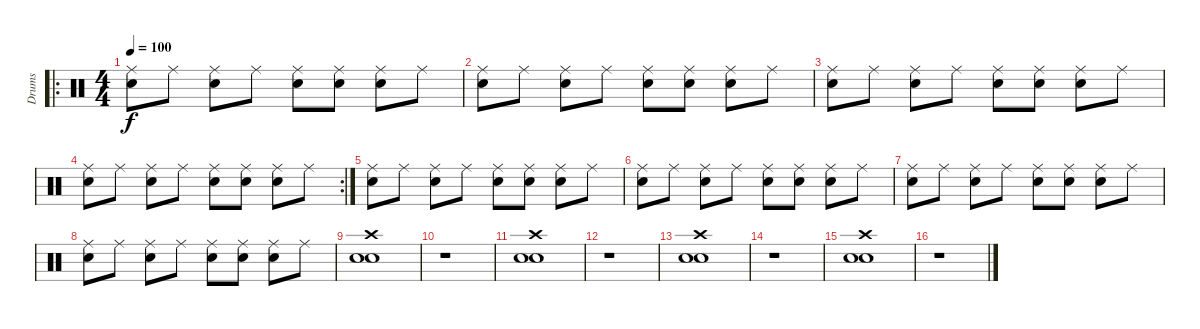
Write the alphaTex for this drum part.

\track ("Drums" "Drums") {instrument percussion}
\staff {score}
\articulation defaults
\ro
\ts (4 4)
\tempo 100
\clef neutral
\ks c
("Ride (middle)" "Snare (hit) 2").8{dy f} "Ride (middle)".8 ("Ride (middle)" "Electric Snare (hit)").8 "Ride (middle)".8 ("Ride (middle)" "Snare (hit) 2").8 ("Ride (middle)" "Snare (hit) 2").8 ("Ride (middle)" "Electric Snare (hit)").8 "Ride (middle)".8 |
("Ride (middle)" "Snare (hit) 2").8 "Ride (middle)".8 ("Ride (middle)" "Electric Snare (hit)").8 "Ride (middle)".8 ("Ride (middle)" "Snare (hit) 2").8 ("Ride (middle)" "Snare (hit) 2").8 ("Ride (middle)" "Electric Snare (hit)").8 "Ride (middle)".8 |
("Ride (middle)" "Snare (hit) 2").8 "Ride (middle)".8 ("Ride (middle)" "Electric Snare (hit)").8 "Ride (middle)".8 ("Ride (middle)" "Snare (hit) 2").8 ("Ride (middle)" "Snare (hit) 2").8 ("Ride (middle)" "Electric Snare (hit)").8 "Ride (middle)".8 |
\rc 2
("Ride (middle)" "Snare (hit) 2").8 "Ride (middle)".8 ("Ride (middle)" "Electric Snare (hit)").8 "Ride (middle)".8 ("Ride (middle)" "Snare (hit) 2").8 ("Ride (middle)" "Snare (hit) 2").8 ("Ride (middle)" "Electric Snare (hit)").8 "Ride (middle)".8 |
("Ride (middle)" "Snare (hit) 2").8 "Ride (middle)".8 ("Ride (middle)" "Electric Snare (hit)").8 "Ride (middle)".8 ("Ride (middle)" "Snare (hit) 2").8 ("Ride (middle)" "Snare (hit) 2").8 ("Ride (middle)" "Electric Snare (hit)").8 "Ride (middle)".8 |
("Ride (middle)" "Snare (hit) 2").8 "Ride (middle)".8 ("Ride (middle)" "Electric Snare (hit)").8 "Ride (middle)".8 ("Ride (middle)" "Snare (hit) 2").8 ("Ride (middle)" "Snare (hit) 2").8 ("Ride (middle)" "Electric Snare (hit)").8 "Ride (middle)".8 |
("Ride (middle)" "Snare (hit) 2").8 "Ride (middle)".8 ("Ride (middle)" "Electric Snare (hit)").8 "Ride (middle)".8 ("Ride (middle)" "Snare (hit) 2").8 ("Ride (middle)" "Snare (hit) 2").8 ("Ride (middle)" "Electric Snare (hit)").8 "Ride (middle)".8 |
("Ride (middle)" "Snare (hit) 2").8 "Ride (middle)".8 ("Ride (middle)" "Electric Snare (hit)").8 "Ride (middle)".8 ("Ride (middle)" "Snare (hit) 2").8 ("Ride (middle)" "Snare (hit) 2").8 ("Ride (middle)" "Electric Snare (hit)").8 "Ride (middle)".8 |
("Crash high (hit)" "Electric Snare (hit)" "Snare (hit) 2").1 |
r.1 |
("Crash high (hit)" "Electric Snare (hit)" "Snare (hit) 2").1 |
r.1 |
("Crash high (hit)" "Electric Snare (hit)" "Snare (hit) 2").1 |
r.1 |
("Crash high (hit)" "Electric Snare (hit)" "Snare (hit) 2").1 |
r.1
